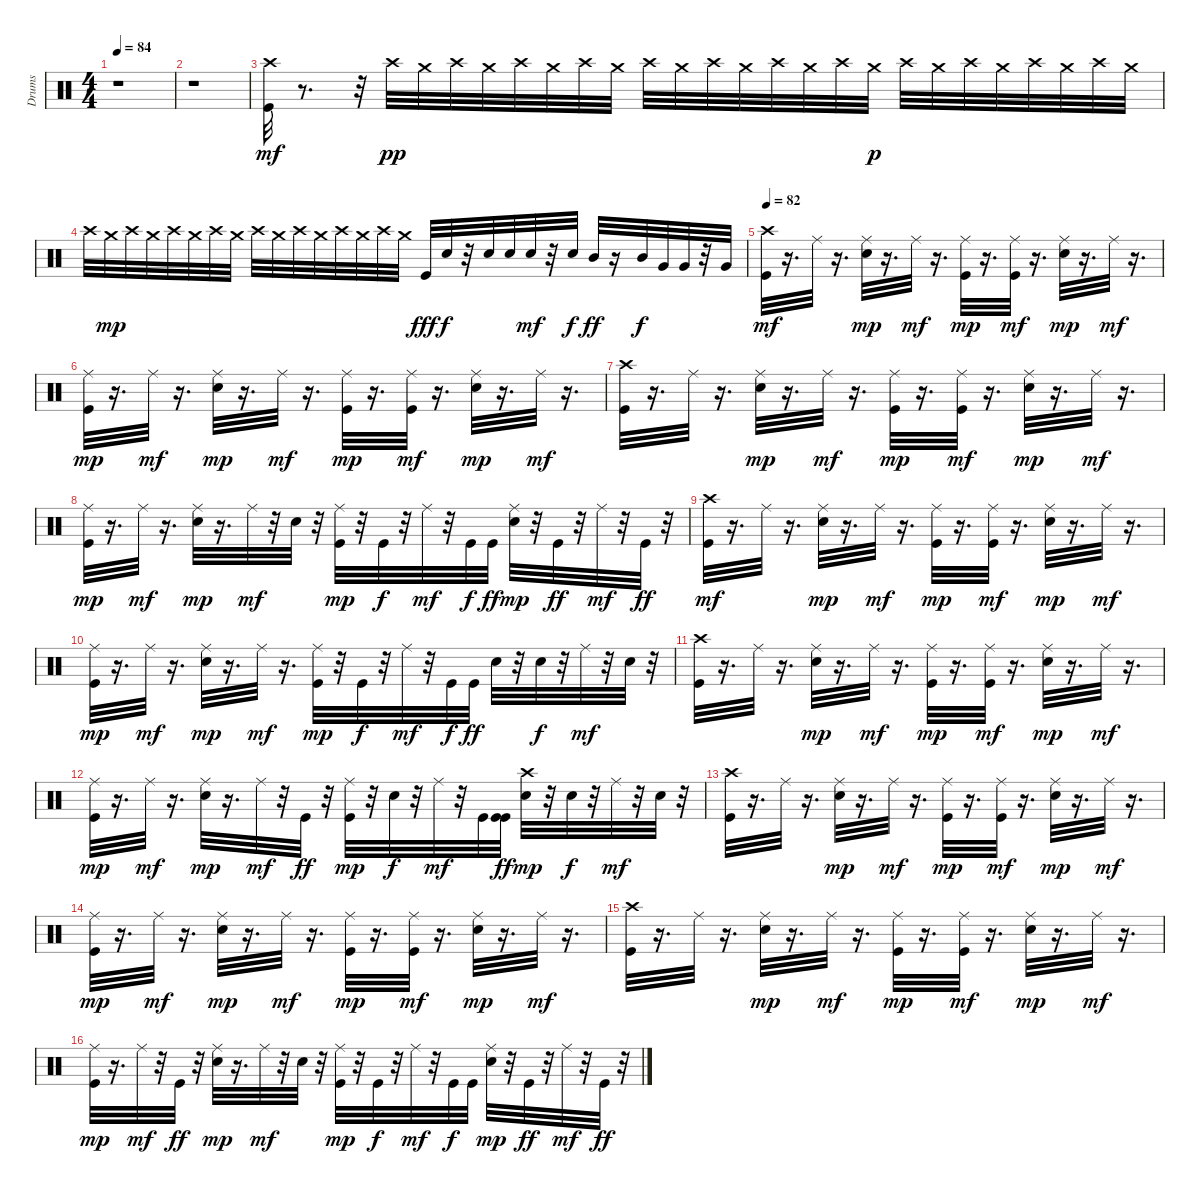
\track ("Drums" "Drums") {instrument percussion}
\staff {score}
\articulation defaults
\ts (4 4)
\tempo 84
\clef neutral
\ks c
r.1{dy mf} |
r.1 |
("Kick (hit)" "Crash high (hit)").32 r.8{d} r.32 "Crash high (hit)".32{dy pp} "Crash medium (hit)".32 "Crash high (hit)".32 "Crash medium (hit)".32 "Crash high (hit)".32 "Crash medium (hit)".32 "Crash high (hit)".32 "Crash medium (hit)".32 "Crash high (hit)".32 "Crash medium (hit)".32 "Crash high (hit)".32 "Crash medium (hit)".32 "Crash high (hit)".32 "Crash medium (hit)".32 "Crash high (hit)".32 "Crash medium (hit)".32{dy p} "Crash high (hit)".32 "Crash medium (hit)".32 "Crash high (hit)".32 "Crash medium (hit)".32 "Crash high (hit)".32 "Crash medium (hit)".32 "Crash high (hit)".32 "Crash medium (hit)".32 |
"Crash high (hit)".32 "Crash medium (hit)".32{dy mp} "Crash high (hit)".32 "Crash medium (hit)".32 "Crash high (hit)".32 "Crash medium (hit)".32 "Crash high (hit)".32 "Crash medium (hit)".32 "Crash high (hit)".32 "Crash medium (hit)".32 "Crash high (hit)".32 "Crash medium (hit)".32 "Crash high (hit)".32 "Crash medium (hit)".32 "Crash high (hit)".32 "Crash medium (hit)".32 "Kick (hit)".32{dy fff} "Snare (hit) 2".32{dy f} r.32 "Snare (hit) 2".32 "Snare (hit) 2".32 "Snare (hit) 2".32{dy mf} r.32 "Snare (hit) 2".32{dy f} "Mid Tom (hit)".32{dy ff} r.16 "Mid Tom (hit)".32{dy f} "Very Low Tom (hit)".32 "Very Low Tom (hit)".32 r.32 "Very Low Tom (hit)".32 |
\tempo 82
("Kick (hit)" "Crash high (hit)").32{dy mf} r.16{d} "Ride (middle)".32 r.16{d} ("Snare (hit) 2" "Ride (middle)").32{dy mp} r.16{d} "Ride (middle)".32{dy mf} r.16{d} ("Kick (hit)" "Ride (middle)").32{dy mp} r.16{d} ("Kick (hit)" "Ride (middle)").32{dy mf} r.16{d} ("Snare (hit) 2" "Ride (middle)").32{dy mp} r.16{d} "Ride (middle)".32{dy mf} r.16{d} |
("Kick (hit)" "Ride (middle)").32{dy mp} r.16{d} "Ride (middle)".32{dy mf} r.16{d} ("Snare (hit) 2" "Ride (middle)").32{dy mp} r.16{d} "Ride (middle)".32{dy mf} r.16{d} ("Kick (hit)" "Ride (middle)").32{dy mp} r.16{d} ("Kick (hit)" "Ride (middle)").32{dy mf} r.16{d} ("Snare (hit) 2" "Ride (middle)").32{dy mp} r.16{d} "Ride (middle)".32{dy mf} r.16{d} |
("Kick (hit)" "Crash high (hit)").32 r.16{d} "Ride (middle)".32 r.16{d} ("Snare (hit) 2" "Ride (middle)").32{dy mp} r.16{d} "Ride (middle)".32{dy mf} r.16{d} ("Kick (hit)" "Ride (middle)").32{dy mp} r.16{d} ("Kick (hit)" "Ride (middle)").32{dy mf} r.16{d} ("Snare (hit) 2" "Ride (middle)").32{dy mp} r.16{d} "Ride (middle)".32{dy mf} r.16{d} |
("Kick (hit)" "Ride (middle)").32{dy mp} r.16{d} "Ride (middle)".32{dy mf} r.16{d} ("Snare (hit) 2" "Ride (middle)").32{dy mp} r.16{d} "Ride (middle)".32{dy mf} r.32 "Snare (hit) 2".32 r.32 ("Kick (hit)" "Ride (middle)").32{dy mp} r.32 "Kick (hit)".32{dy f} r.32 "Ride (middle)".32{dy mf} r.32 "Kick (hit)".32{dy f} "Kick (hit)".32{dy ff} ("Snare (hit) 2" "Ride (middle)").32{dy mp} r.32 "Kick (hit)".32{dy ff} r.32 "Ride (middle)".32{dy mf} r.32 "Kick (hit)".32{dy ff} r.32 |
("Kick (hit)" "Crash high (hit)").32{dy mf} r.16{d} "Ride (middle)".32 r.16{d} ("Snare (hit) 2" "Ride (middle)").32{dy mp} r.16{d} "Ride (middle)".32{dy mf} r.16{d} ("Kick (hit)" "Ride (middle)").32{dy mp} r.16{d} ("Kick (hit)" "Ride (middle)").32{dy mf} r.16{d} ("Snare (hit) 2" "Ride (middle)").32{dy mp} r.16{d} "Ride (middle)".32{dy mf} r.16{d} |
("Kick (hit)" "Ride (middle)").32{dy mp} r.16{d} "Ride (middle)".32{dy mf} r.16{d} ("Snare (hit) 2" "Ride (middle)").32{dy mp} r.16{d} "Ride (middle)".32{dy mf} r.16{d} ("Kick (hit)" "Ride (middle)").32{dy mp} r.32 "Kick (hit)".32{dy f} r.32 "Ride (middle)".32{dy mf} r.32 "Kick (hit)".32{dy f} "Kick (hit)".32{dy ff} "Snare (hit) 2".32 r.32 "Snare (hit) 2".32{dy f} r.32 "Ride (middle)".32{dy mf} r.32 "Snare (hit) 2".32 r.32 |
("Kick (hit)" "Crash high (hit)").32 r.16{d} "Ride (middle)".32 r.16{d} ("Snare (hit) 2" "Ride (middle)").32{dy mp} r.16{d} "Ride (middle)".32{dy mf} r.16{d} ("Kick (hit)" "Ride (middle)").32{dy mp} r.16{d} ("Kick (hit)" "Ride (middle)").32{dy mf} r.16{d} ("Snare (hit) 2" "Ride (middle)").32{dy mp} r.16{d} "Ride (middle)".32{dy mf} r.16{d} |
("Kick (hit)" "Ride (middle)").32{dy mp} r.16{d} "Ride (middle)".32{dy mf} r.16{d} ("Snare (hit) 2" "Ride (middle)").32{dy mp} r.16{d} "Ride (middle)".32{dy mf} r.32 "Kick (hit)".32{dy ff} r.32 ("Kick (hit)" "Ride (middle)").32{dy mp} r.32 "Snare (hit) 2".32{dy f} r.32 "Ride (middle)".32{dy mf} r.32 "Kick (hit)".32 ("Kick (hit)" "Kick (hit)").32{dy ff} ("Snare (hit) 2" "Crash high (hit)").32{dy mp} r.32 "Snare (hit) 2".32{dy f} r.32 "Ride (middle)".32{dy mf} r.32 "Snare (hit) 2".32 r.32 |
("Kick (hit)" "Crash high (hit)").32 r.16{d} "Ride (middle)".32 r.16{d} ("Snare (hit) 2" "Ride (middle)").32{dy mp} r.16{d} "Ride (middle)".32{dy mf} r.16{d} ("Kick (hit)" "Ride (middle)").32{dy mp} r.16{d} ("Kick (hit)" "Ride (middle)").32{dy mf} r.16{d} ("Snare (hit) 2" "Ride (middle)").32{dy mp} r.16{d} "Ride (middle)".32{dy mf} r.16{d} |
("Kick (hit)" "Ride (middle)").32{dy mp} r.16{d} "Ride (middle)".32{dy mf} r.16{d} ("Snare (hit) 2" "Ride (middle)").32{dy mp} r.16{d} "Ride (middle)".32{dy mf} r.16{d} ("Kick (hit)" "Ride (middle)").32{dy mp} r.16{d} ("Kick (hit)" "Ride (middle)").32{dy mf} r.16{d} ("Snare (hit) 2" "Ride (middle)").32{dy mp} r.16{d} "Ride (middle)".32{dy mf} r.16{d} |
("Kick (hit)" "Crash high (hit)").32 r.16{d} "Ride (middle)".32 r.16{d} ("Snare (hit) 2" "Ride (middle)").32{dy mp} r.16{d} "Ride (middle)".32{dy mf} r.16{d} ("Kick (hit)" "Ride (middle)").32{dy mp} r.16{d} ("Kick (hit)" "Ride (middle)").32{dy mf} r.16{d} ("Snare (hit) 2" "Ride (middle)").32{dy mp} r.16{d} "Ride (middle)".32{dy mf} r.16{d} |
("Kick (hit)" "Ride (middle)").32{dy mp} r.16{d} "Ride (middle)".32{dy mf} r.32 "Kick (hit)".32{dy ff} r.32 ("Snare (hit) 2" "Ride (middle)").32{dy mp} r.16{d} "Ride (middle)".32{dy mf} r.32 "Snare (hit) 2".32 r.32 ("Kick (hit)" "Ride (middle)").32{dy mp} r.32 "Kick (hit)".32{dy f} r.32 "Ride (middle)".32{dy mf} r.32 "Kick (hit)".32{dy f} "Kick (hit)".32 ("Snare (hit) 2" "Ride (middle)").32{dy mp} r.32 "Kick (hit)".32{dy ff} r.32 "Ride (middle)".32{dy mf} r.32 "Kick (hit)".32{dy ff} r.32
